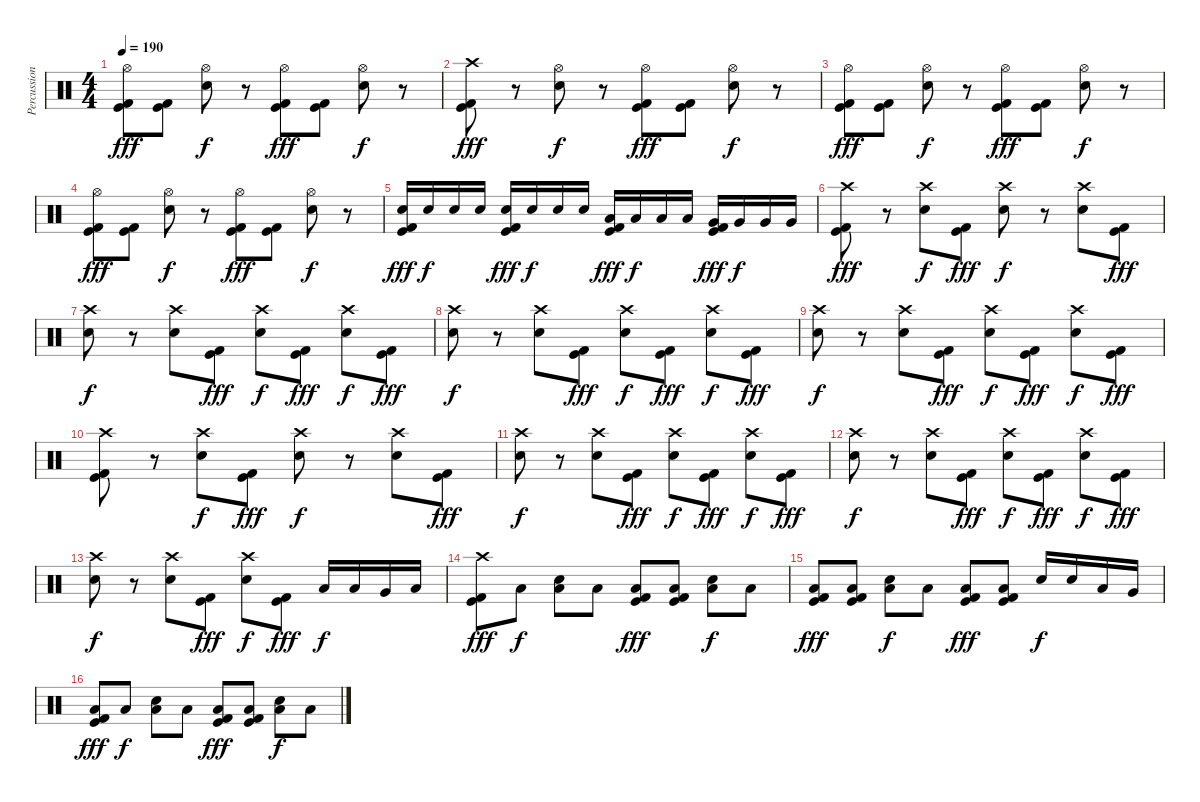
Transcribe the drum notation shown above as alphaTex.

\track ("Percussion" "Percussion") {instrument percussion}
\staff {score}
\articulation defaults
\ts (4 4)
\tempo 190
\clef neutral
\ks c
("Hi-Hat (open)" "Kick (hit)" "Kick (hit) 2").8{dy fff} ("Kick (hit)" "Kick (hit) 2").8 ("Hi-Hat (open)" "Electric Snare (hit)").8{dy f} r.8 ("Hi-Hat (open)" "Kick (hit)" "Kick (hit) 2").8{dy fff} ("Kick (hit)" "Kick (hit) 2").8 ("Hi-Hat (open)" "Electric Snare (hit)").8{dy f} r.8 |
("Crash high (hit)" "Kick (hit)" "Kick (hit) 2").8{dy fff} r.8 ("Hi-Hat (open)" "Electric Snare (hit)").8{dy f} r.8 ("Hi-Hat (open)" "Kick (hit)" "Kick (hit) 2").8{dy fff} ("Kick (hit)" "Kick (hit) 2").8 ("Hi-Hat (open)" "Electric Snare (hit)").8{dy f} r.8 |
("Hi-Hat (open)" "Kick (hit)" "Kick (hit) 2").8{dy fff} ("Kick (hit)" "Kick (hit) 2").8 ("Hi-Hat (open)" "Electric Snare (hit)").8{dy f} r.8 ("Hi-Hat (open)" "Kick (hit)" "Kick (hit) 2").8{dy fff} ("Kick (hit)" "Kick (hit) 2").8 ("Hi-Hat (open)" "Electric Snare (hit)").8{dy f} r.8 |
("Hi-Hat (open)" "Kick (hit)" "Kick (hit) 2").8{dy fff} ("Kick (hit)" "Kick (hit) 2").8 ("Hi-Hat (open)" "Electric Snare (hit)").8{dy f} r.8 ("Hi-Hat (open)" "Kick (hit)" "Kick (hit) 2").8{dy fff} ("Kick (hit)" "Kick (hit) 2").8 ("Hi-Hat (open)" "Electric Snare (hit)").8{dy f} r.8 |
("Electric Snare (hit)" "Kick (hit)" "Kick (hit) 2").16{dy fff} "Electric Snare (hit)".16{dy f} "Electric Snare (hit)".16 "Electric Snare (hit)".16 ("Electric Snare (hit)" "Kick (hit)" "Kick (hit) 2").16{dy fff} "Electric Snare (hit)".16{dy f} "Electric Snare (hit)".16 "Electric Snare (hit)".16 ("Low Tom (hit)" "Kick (hit)" "Kick (hit) 2").16{dy fff} "Low Tom (hit)".16{dy f} "Low Tom (hit)".16 "Low Tom (hit)".16 ("Very Low Tom (hit)" "Kick (hit)" "Kick (hit) 2").16{dy fff} "Very Low Tom (hit)".16{dy f} "Very Low Tom (hit)".16 "Very Low Tom (hit)".16 |
("Crash high (hit)" "Kick (hit)" "Kick (hit) 2").8{dy fff} r.8 ("Crash high (hit)" "Electric Snare (hit)").8{dy f} ("Kick (hit)" "Kick (hit) 2").8{dy fff} ("Crash high (hit)" "Electric Snare (hit)").8{dy f} r.8 ("Crash high (hit)" "Electric Snare (hit)").8 ("Kick (hit)" "Kick (hit) 2").8{dy fff} |
("Crash high (hit)" "Electric Snare (hit)").8{dy f} r.8 ("Crash high (hit)" "Electric Snare (hit)").8 ("Kick (hit)" "Kick (hit) 2").8{dy fff} ("Crash high (hit)" "Electric Snare (hit)").8{dy f} ("Kick (hit)" "Kick (hit) 2").8{dy fff} ("Crash high (hit)" "Electric Snare (hit)").8{dy f} ("Kick (hit)" "Kick (hit) 2").8{dy fff} |
("Crash high (hit)" "Electric Snare (hit)").8{dy f} r.8 ("Crash high (hit)" "Electric Snare (hit)").8 ("Kick (hit)" "Kick (hit) 2").8{dy fff} ("Crash high (hit)" "Electric Snare (hit)").8{dy f} ("Kick (hit)" "Kick (hit) 2").8{dy fff} ("Crash high (hit)" "Electric Snare (hit)").8{dy f} ("Kick (hit)" "Kick (hit) 2").8{dy fff} |
("Crash high (hit)" "Electric Snare (hit)").8{dy f} r.8 ("Crash high (hit)" "Electric Snare (hit)").8 ("Kick (hit)" "Kick (hit) 2").8{dy fff} ("Crash high (hit)" "Electric Snare (hit)").8{dy f} ("Kick (hit)" "Kick (hit) 2").8{dy fff} ("Crash high (hit)" "Electric Snare (hit)").8{dy f} ("Kick (hit)" "Kick (hit) 2").8{dy fff} |
("Crash high (hit)" "Kick (hit)" "Kick (hit) 2").8 r.8 ("Crash high (hit)" "Electric Snare (hit)").8{dy f} ("Kick (hit)" "Kick (hit) 2").8{dy fff} ("Crash high (hit)" "Electric Snare (hit)").8{dy f} r.8 ("Crash high (hit)" "Electric Snare (hit)").8 ("Kick (hit)" "Kick (hit) 2").8{dy fff} |
("Crash high (hit)" "Electric Snare (hit)").8{dy f} r.8 ("Crash high (hit)" "Electric Snare (hit)").8 ("Kick (hit)" "Kick (hit) 2").8{dy fff} ("Crash high (hit)" "Electric Snare (hit)").8{dy f} ("Kick (hit)" "Kick (hit) 2").8{dy fff} ("Crash high (hit)" "Electric Snare (hit)").8{dy f} ("Kick (hit)" "Kick (hit) 2").8{dy fff} |
("Crash high (hit)" "Electric Snare (hit)").8{dy f} r.8 ("Crash high (hit)" "Electric Snare (hit)").8 ("Kick (hit)" "Kick (hit) 2").8{dy fff} ("Crash high (hit)" "Electric Snare (hit)").8{dy f} ("Kick (hit)" "Kick (hit) 2").8{dy fff} ("Crash high (hit)" "Electric Snare (hit)").8{dy f} ("Kick (hit)" "Kick (hit) 2").8{dy fff} |
("Crash high (hit)" "Electric Snare (hit)").8{dy f} r.8 ("Crash high (hit)" "Electric Snare (hit)").8 ("Kick (hit)" "Kick (hit) 2").8{dy fff} ("Crash high (hit)" "Electric Snare (hit)").8{dy f} ("Kick (hit)" "Kick (hit) 2").8{dy fff} "Low Tom (hit)".16{dy f} "Low Tom (hit)".16 "Very Low Tom (hit)".16 "Low Floor Tom (hit)".16 |
("Crash high (hit)" "Kick (hit)" "Kick (hit) 2").8{dy fff} "Low Floor Tom (hit)".8{dy f} ("Low Floor Tom (hit)" "Electric Snare (hit)").8 "Low Floor Tom (hit)".8 ("Low Floor Tom (hit)" "Kick (hit)" "Kick (hit) 2").8{dy fff} ("Low Floor Tom (hit)" "Kick (hit)" "Kick (hit) 2").8 ("Low Floor Tom (hit)" "Electric Snare (hit)").8{dy f} "Low Floor Tom (hit)".8 |
("Low Floor Tom (hit)" "Kick (hit)" "Kick (hit) 2").8{dy fff} ("Low Floor Tom (hit)" "Kick (hit)" "Kick (hit) 2").8 ("Low Floor Tom (hit)" "Electric Snare (hit)").8{dy f} "Low Floor Tom (hit)".8 ("Low Floor Tom (hit)" "Kick (hit)" "Kick (hit) 2").8{dy fff} ("Low Floor Tom (hit)" "Kick (hit)" "Kick (hit) 2").8 "Electric Snare (hit)".16{dy f} "Electric Snare (hit)".16 "Low Tom (hit)".16 "Very Low Tom (hit)".16 |
("Low Floor Tom (hit)" "Kick (hit)" "Kick (hit) 2").8{dy fff} "Low Floor Tom (hit)".8{dy f} ("Low Floor Tom (hit)" "Electric Snare (hit)").8 "Low Floor Tom (hit)".8 ("Low Floor Tom (hit)" "Kick (hit)" "Kick (hit) 2").8{dy fff} ("Low Floor Tom (hit)" "Kick (hit)" "Kick (hit) 2").8 ("Low Floor Tom (hit)" "Electric Snare (hit)").8{dy f} "Low Floor Tom (hit)".8
